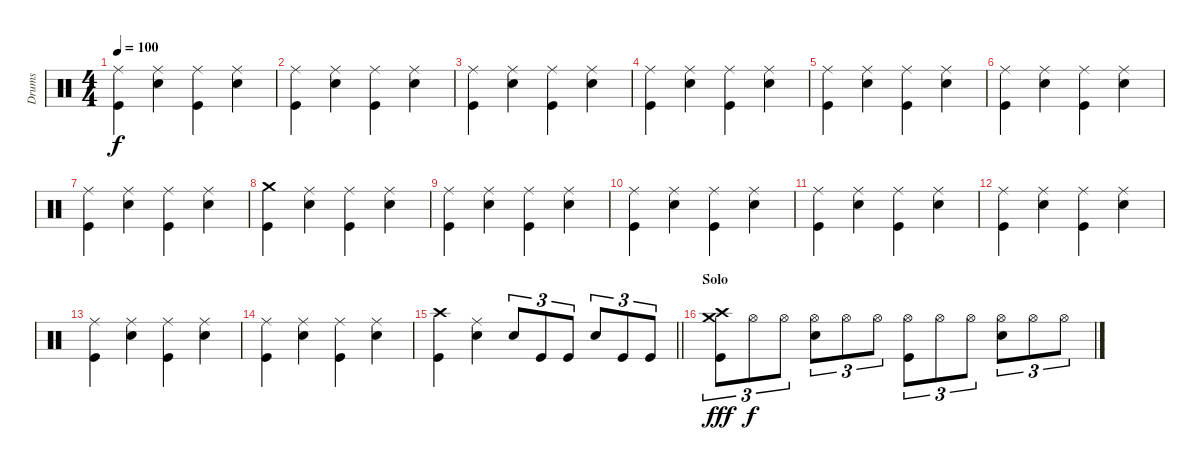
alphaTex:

\track ("Drums" "Drums") {instrument percussion}
\staff {score}
\articulation defaults
\ts (4 4)
\tempo 100
\clef neutral
\ks c
("Ride (middle)" "Kick (hit)").4{dy f} ("Ride (middle)" "Snare (hit) 2").4 ("Ride (middle)" "Kick (hit)").4 ("Ride (middle)" "Snare (hit) 2").4 |
("Ride (middle)" "Kick (hit)").4 ("Ride (middle)" "Snare (hit) 2").4 ("Ride (middle)" "Kick (hit)").4 ("Ride (middle)" "Snare (hit) 2").4 |
("Ride (middle)" "Kick (hit)").4 ("Ride (middle)" "Snare (hit) 2").4 ("Ride (middle)" "Kick (hit)").4 ("Ride (middle)" "Snare (hit) 2").4 |
("Ride (middle)" "Kick (hit)").4 ("Ride (middle)" "Snare (hit) 2").4 ("Ride (middle)" "Kick (hit)").4 ("Ride (middle)" "Snare (hit) 2").4 |
("Ride (middle)" "Kick (hit)").4 ("Ride (middle)" "Snare (hit) 2").4 ("Ride (middle)" "Kick (hit)").4 ("Ride (middle)" "Snare (hit) 2").4 |
("Ride (middle)" "Kick (hit)").4 ("Ride (middle)" "Snare (hit) 2").4 ("Ride (middle)" "Kick (hit)").4 ("Ride (middle)" "Snare (hit) 2").4 |
("Ride (middle)" "Kick (hit)").4 ("Ride (middle)" "Snare (hit) 2").4 ("Ride (middle)" "Kick (hit)").4 ("Ride (middle)" "Snare (hit) 2").4 |
("Crash medium (hit)" "Kick (hit)").4 ("Ride (middle)" "Snare (hit) 2").4 ("Ride (middle)" "Kick (hit)").4 ("Ride (middle)" "Snare (hit) 2").4 |
("Ride (middle)" "Kick (hit)").4 ("Ride (middle)" "Snare (hit) 2").4 ("Ride (middle)" "Kick (hit)").4 ("Ride (middle)" "Snare (hit) 2").4 |
("Ride (middle)" "Kick (hit)").4 ("Ride (middle)" "Snare (hit) 2").4 ("Ride (middle)" "Kick (hit)").4 ("Ride (middle)" "Snare (hit) 2").4 |
("Ride (middle)" "Kick (hit)").4 ("Ride (middle)" "Snare (hit) 2").4 ("Ride (middle)" "Kick (hit)").4 ("Ride (middle)" "Snare (hit) 2").4 |
("Ride (middle)" "Kick (hit)").4 ("Ride (middle)" "Snare (hit) 2").4 ("Ride (middle)" "Kick (hit)").4 ("Ride (middle)" "Snare (hit) 2").4 |
("Ride (middle)" "Kick (hit)").4 ("Ride (middle)" "Snare (hit) 2").4 ("Ride (middle)" "Kick (hit)").4 ("Ride (middle)" "Snare (hit) 2").4 |
("Ride (middle)" "Kick (hit)").4 ("Ride (middle)" "Snare (hit) 2").4 ("Ride (middle)" "Kick (hit)").4 ("Ride (middle)" "Snare (hit) 2").4 |
\barLineRight lightlight
("Crash high (hit)" "Kick (hit)").4 ("Ride (middle)" "Snare (hit) 2").4 "Snare (hit) 2".8{tu (3 2)} "Kick (hit)".8{tu (3 2)} "Kick (hit)".8{tu (3 2)} "Snare (hit) 2".8{tu (3 2)} "Kick (hit)".8{tu (3 2)} "Kick (hit)".8{tu (3 2)} |
\section ("" "Solo")
("Crash high (hit)" "Crash medium (hit)" "Kick (hit)").8{tu (3 2) dy fff} "Hi-Hat (open)".8{tu (3 2) dy f} "Hi-Hat (open)".8{tu (3 2)} ("Hi-Hat (open)" "Snare (hit) 2").8{tu (3 2)} "Hi-Hat (open)".8{tu (3 2)} "Hi-Hat (open)".8{tu (3 2)} ("Hi-Hat (open)" "Kick (hit)").8{tu (3 2)} "Hi-Hat (open)".8{tu (3 2)} "Hi-Hat (open)".8{tu (3 2)} ("Hi-Hat (open)" "Snare (hit) 2").8{tu (3 2)} "Hi-Hat (open)".8{tu (3 2)} "Hi-Hat (open)".8{tu (3 2)}
